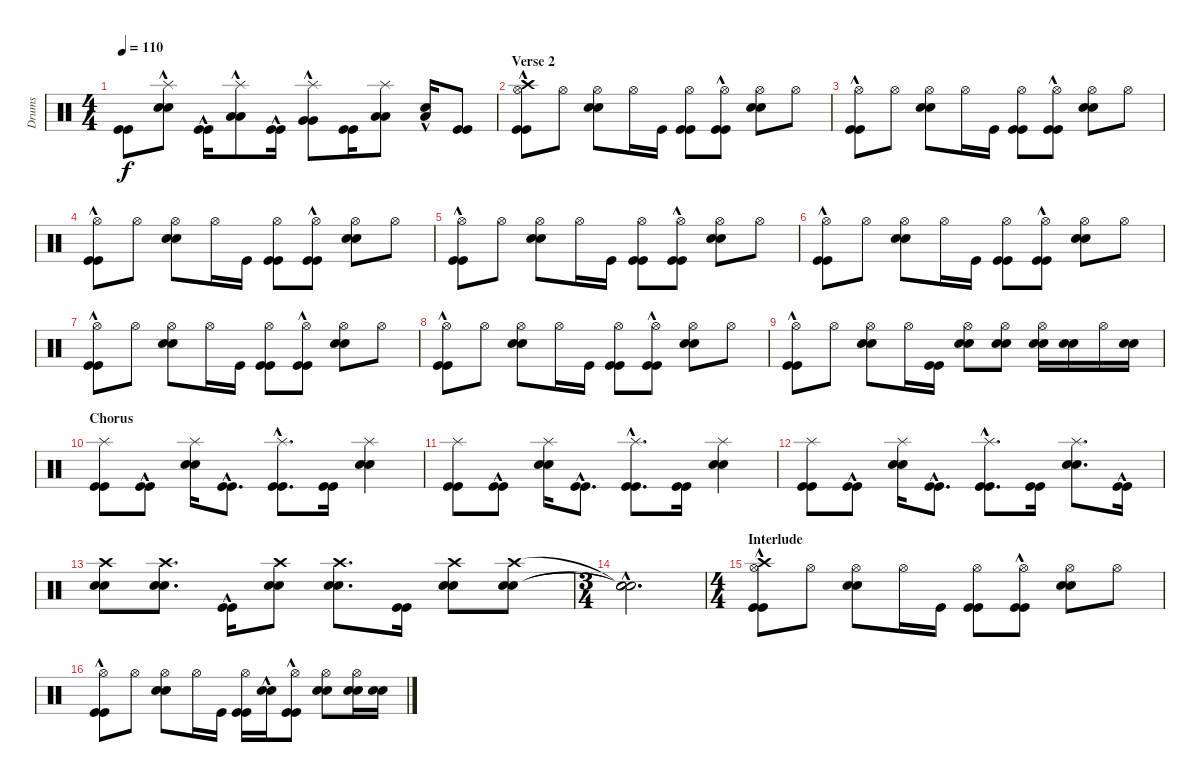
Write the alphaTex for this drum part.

\track ("Drums" "Drums") {instrument percussion}
\staff {score}
\articulation defaults
\ts (4 4)
\tempo 110
\clef neutral
\ks c
("Kick (hit)" "Kick (hit)").8{dy f} ("Snare (hit) 2"{hac} "Snare (hit) 2"{hac} "Splash (hit)"{hac}).8 ("Kick (hit)"{hac} "Kick (hit)"{hac}).16 ("Low Tom (hit)" "Low Tom (hit)" "Splash (hit)"{hac}).8 ("Kick (hit)"{hac} "Kick (hit)"{hac}).16 ("Very Low Tom (hit)" "Very Low Tom (hit)" "Splash (hit)"{hac}).8 ("Kick (hit)" "Kick (hit)").16 ("Low Floor Tom (hit)" "Low Floor Tom (hit)" "Splash (hit)").8 ("Snare (hit) 2"{hac} "Low Floor Tom (hit)"{hac}).16 ("Kick (hit)" "Kick (hit)").8 |
\section ("" "Verse 2")
("Kick (hit)"{hac} "Kick (hit)"{hac} "Hi-Hat (open)" "Crash high (hit)").8 "Hi-Hat (open)".8 ("Snare (hit) 2" "Snare (hit) 2" "Hi-Hat (open)").8 "Hi-Hat (open)".16 "Kick (hit)".16 ("Kick (hit)" "Kick (hit)" "Hi-Hat (open)").8 ("Kick (hit)"{hac} "Kick (hit)"{hac} "Hi-Hat (open)").8 ("Snare (hit) 2" "Snare (hit) 2" "Hi-Hat (open)").8 "Hi-Hat (open)".8 |
("Kick (hit)"{hac} "Kick (hit)"{hac} "Hi-Hat (open)").8 "Hi-Hat (open)".8 ("Snare (hit) 2" "Snare (hit) 2" "Hi-Hat (open)").8 "Hi-Hat (open)".16 "Kick (hit)".16 ("Kick (hit)" "Kick (hit)" "Hi-Hat (open)").8 ("Kick (hit)"{hac} "Kick (hit)"{hac} "Hi-Hat (open)").8 ("Snare (hit) 2" "Snare (hit) 2" "Hi-Hat (open)").8 "Hi-Hat (open)".8 |
("Kick (hit)"{hac} "Kick (hit)"{hac} "Hi-Hat (open)").8 "Hi-Hat (open)".8 ("Snare (hit) 2" "Snare (hit) 2" "Hi-Hat (open)").8 "Hi-Hat (open)".16 "Kick (hit)".16 ("Kick (hit)" "Kick (hit)" "Hi-Hat (open)").8 ("Kick (hit)"{hac} "Kick (hit)"{hac} "Hi-Hat (open)").8 ("Snare (hit) 2" "Snare (hit) 2" "Hi-Hat (open)").8 "Hi-Hat (open)".8 |
("Kick (hit)"{hac} "Kick (hit)"{hac} "Hi-Hat (open)").8 "Hi-Hat (open)".8 ("Snare (hit) 2" "Snare (hit) 2" "Hi-Hat (open)").8 "Hi-Hat (open)".16 "Kick (hit)".16 ("Kick (hit)" "Kick (hit)" "Hi-Hat (open)").8 ("Kick (hit)"{hac} "Kick (hit)"{hac} "Hi-Hat (open)").8 ("Snare (hit) 2" "Snare (hit) 2" "Hi-Hat (open)").8 "Hi-Hat (open)".8 |
("Kick (hit)"{hac} "Kick (hit)"{hac} "Hi-Hat (open)").8 "Hi-Hat (open)".8 ("Snare (hit) 2" "Snare (hit) 2" "Hi-Hat (open)").8 "Hi-Hat (open)".16 "Kick (hit)".16 ("Kick (hit)" "Kick (hit)" "Hi-Hat (open)").8 ("Kick (hit)"{hac} "Kick (hit)"{hac} "Hi-Hat (open)").8 ("Snare (hit) 2" "Snare (hit) 2" "Hi-Hat (open)").8 "Hi-Hat (open)".8 |
("Kick (hit)"{hac} "Kick (hit)"{hac} "Hi-Hat (open)").8 "Hi-Hat (open)".8 ("Snare (hit) 2" "Snare (hit) 2" "Hi-Hat (open)").8 "Hi-Hat (open)".16 "Kick (hit)".16 ("Kick (hit)" "Kick (hit)" "Hi-Hat (open)").8 ("Kick (hit)"{hac} "Kick (hit)"{hac} "Hi-Hat (open)").8 ("Snare (hit) 2" "Snare (hit) 2" "Hi-Hat (open)").8 "Hi-Hat (open)".8 |
("Kick (hit)"{hac} "Kick (hit)"{hac} "Hi-Hat (open)").8 "Hi-Hat (open)".8 ("Snare (hit) 2" "Snare (hit) 2" "Hi-Hat (open)").8 "Hi-Hat (open)".16 "Kick (hit)".16 ("Kick (hit)" "Kick (hit)" "Hi-Hat (open)").8 ("Kick (hit)"{hac} "Kick (hit)"{hac} "Hi-Hat (open)").8 ("Snare (hit) 2" "Snare (hit) 2" "Hi-Hat (open)").8 "Hi-Hat (open)".8 |
("Kick (hit)"{hac} "Kick (hit)"{hac} "Hi-Hat (open)").8 "Hi-Hat (open)".8 ("Snare (hit) 2" "Snare (hit) 2" "Hi-Hat (open)").8 "Hi-Hat (open)".16 ("Kick (hit)" "Kick (hit)").16 ("Snare (hit) 2" "Snare (hit) 2" "Hi-Hat (open)").8 ("Snare (hit) 2" "Snare (hit) 2" "Hi-Hat (open)").8 ("Snare (hit) 2" "Snare (hit) 2" "Hi-Hat (open)").16 ("Snare (hit) 2" "Snare (hit) 2").16 "Hi-Hat (open)".16 ("Snare (hit) 2" "Snare (hit) 2").16 |
\section ("" "Chorus")
("Kick (hit)" "Kick (hit)" "Splash (hit)").8 ("Kick (hit)"{hac} "Kick (hit)"{hac}).8 ("Snare (hit) 2" "Snare (hit) 2" "Splash (hit)").16 ("Kick (hit)"{hac} "Kick (hit)"{hac}).8{d} ("Kick (hit)"{hac} "Kick (hit)"{hac} "Splash (hit)").8{d} ("Kick (hit)" "Kick (hit)").16 ("Snare (hit) 2" "Snare (hit) 2" "Splash (hit)").4 |
("Kick (hit)" "Kick (hit)" "Splash (hit)").8 ("Kick (hit)"{hac} "Kick (hit)"{hac}).8 ("Snare (hit) 2" "Snare (hit) 2" "Splash (hit)").16 ("Kick (hit)"{hac} "Kick (hit)"{hac}).8{d} ("Kick (hit)"{hac} "Kick (hit)"{hac} "Splash (hit)").8{d} ("Kick (hit)" "Kick (hit)").16 ("Snare (hit) 2" "Snare (hit) 2" "Splash (hit)").4 |
("Kick (hit)" "Kick (hit)" "Splash (hit)").8 ("Kick (hit)"{hac} "Kick (hit)"{hac}).8 ("Snare (hit) 2" "Snare (hit) 2" "Splash (hit)").16 ("Kick (hit)"{hac} "Kick (hit)"{hac}).8{d} ("Kick (hit)"{hac} "Kick (hit)"{hac} "Splash (hit)").8{d} ("Kick (hit)" "Kick (hit)").16 ("Snare (hit) 2" "Snare (hit) 2" "Splash (hit)").8{d} ("Kick (hit)"{hac} "Kick (hit)"{hac}).16 |
("Snare (hit) 2" "Snare (hit) 2" "Crash high (hit)").8 ("Snare (hit) 2" "Snare (hit) 2" "Crash high (hit)").8{d} ("Kick (hit)"{hac} "Kick (hit)"{hac}).16 ("Snare (hit) 2" "Snare (hit) 2" "Crash high (hit)").8 ("Snare (hit) 2" "Snare (hit) 2" "Crash high (hit)").8{d} ("Kick (hit)" "Kick (hit)").16 ("Snare (hit) 2" "Snare (hit) 2" "Crash high (hit)").8 ("Snare (hit) 2" "Snare (hit) 2" "Crash high (hit)").8 |
\ts (3 4)
("Snare (hit)"{hac t} "Snare (hit)"{hac t} "Snare (hit)"{hac t}).2{d} |
\ts (4 4)
\section ("" "Interlude")
("Kick (hit)"{hac} "Kick (hit)"{hac} "Hi-Hat (open)" "Crash high (hit)").8 "Hi-Hat (open)".8 ("Snare (hit) 2" "Snare (hit) 2" "Hi-Hat (open)").8 "Hi-Hat (open)".16 "Kick (hit)".16 ("Kick (hit)" "Kick (hit)" "Hi-Hat (open)").8 ("Kick (hit)"{hac} "Kick (hit)"{hac} "Hi-Hat (open)").8 ("Snare (hit) 2" "Snare (hit) 2" "Hi-Hat (open)").8 "Hi-Hat (open)".8 |
("Kick (hit)"{hac} "Kick (hit)"{hac} "Hi-Hat (open)").8 "Hi-Hat (open)".8 ("Snare (hit) 2" "Snare (hit) 2" "Hi-Hat (open)").8 "Hi-Hat (open)".16 "Kick (hit)".16 ("Kick (hit)" "Kick (hit)" "Hi-Hat (open)").16 ("Snare (hit) 2"{hac} "Snare (hit) 2"{hac}).16 ("Kick (hit)"{hac} "Kick (hit)"{hac} "Hi-Hat (open)").8 ("Snare (hit) 2" "Snare (hit) 2" "Hi-Hat (open)").8 ("Snare (hit) 2" "Snare (hit) 2" "Hi-Hat (open)").16 ("Snare (hit) 2" "Snare (hit) 2").16
